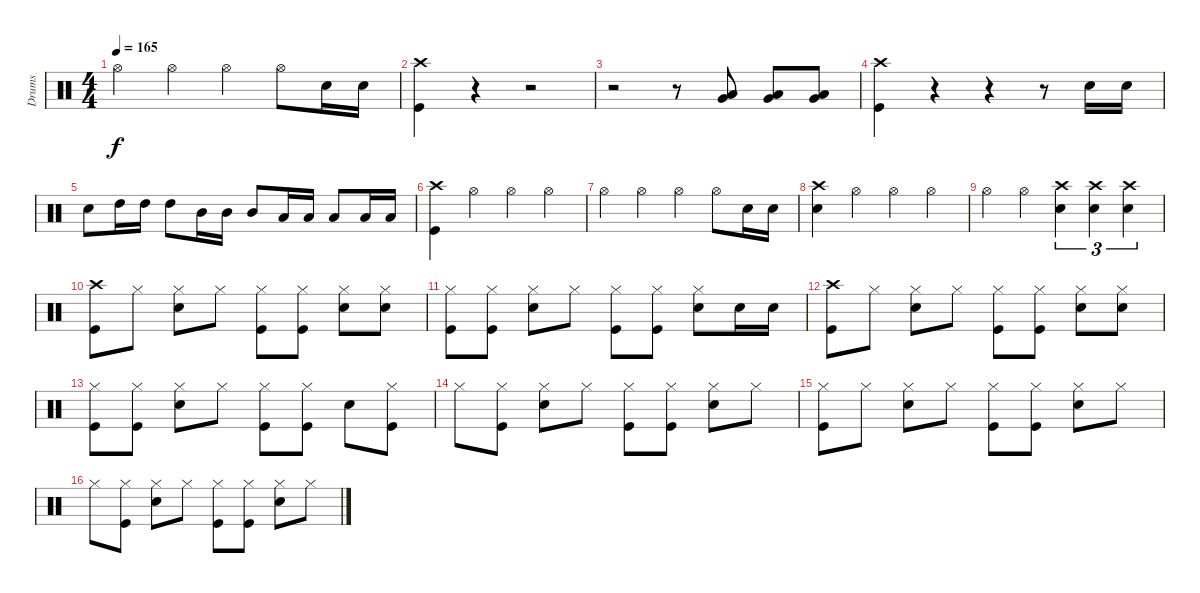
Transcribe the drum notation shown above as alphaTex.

\track ("Drums" "Drums") {instrument percussion}
\staff {score}
\articulation defaults
\ts (4 4)
\tempo 165
\clef neutral
\ks c "Hi-Hat (open)".4{dy f} "Hi-Hat (open)".4 "Hi-Hat (open)".4 "Hi-Hat (open)".8 "Snare (hit) 2".16 "Snare (hit) 2".16
|
("Crash high (hit)" "Kick (hit)").4 r.4 r.2 |
r.2 r.8 ("Low Tom (hit)" "Very Low Tom (hit)").8 ("Low Tom (hit)" "Very Low Tom (hit)").8 ("Low Tom (hit)" "Very Low Tom (hit)").8 |
("Crash high (hit)" "Kick (hit)").4 r.4 r.4 r.8 "Snare (hit) 2".16 "Snare (hit) 2".16 |
"Snare (hit) 2".8 "High Tom (hit)".16 "High Tom (hit)".16 "High Tom (hit)".8 "Mid Tom (hit)".16 "Mid Tom (hit)".16 "Mid Tom (hit)".8 "Low Tom (hit)".16 "Low Tom (hit)".16 "Low Tom (hit)".8 "Low Tom (hit)".16 "Low Tom (hit)".16 |
("Crash high (hit)" "Kick (hit)").4 "Hi-Hat (open)".4 "Hi-Hat (open)".4 "Hi-Hat (open)".4 |
"Hi-Hat (open)".4 "Hi-Hat (open)".4 "Hi-Hat (open)".4 "Hi-Hat (open)".8 "Snare (hit) 2".16 "Snare (hit) 2".16 |
("Crash high (hit)" "Snare (hit) 2").4 "Hi-Hat (open)".4 "Hi-Hat (open)".4 "Hi-Hat (open)".4 |
"Hi-Hat (open)".4 "Hi-Hat (open)".4 ("Crash high (hit)" "Snare (hit) 2").4{tu (3 2)} ("Crash high (hit)" "Snare (hit) 2").4{tu (3 2)} ("Crash high (hit)" "Snare (hit) 2").4{tu (3 2)} |
("Crash high (hit)" "Kick (hit)").8 "Hi-Hat (closed)".8 ("Hi-Hat (closed)" "Snare (hit) 2").8 "Hi-Hat (closed)".8 ("Hi-Hat (closed)" "Kick (hit)").8 ("Hi-Hat (closed)" "Kick (hit)").8 ("Hi-Hat (closed)" "Snare (hit) 2").8 ("Hi-Hat (closed)" "Snare (hit) 2").8 |
("Hi-Hat (closed)" "Kick (hit)").8 ("Hi-Hat (closed)" "Kick (hit)").8 ("Hi-Hat (closed)" "Snare (hit) 2").8 "Hi-Hat (closed)".8 ("Hi-Hat (closed)" "Kick (hit)").8 ("Hi-Hat (closed)" "Kick (hit)").8 ("Hi-Hat (closed)" "Snare (hit) 2").8 "Snare (hit) 2".16 "Snare (hit) 2".16 |
("Crash high (hit)" "Kick (hit)").8 "Hi-Hat (closed)".8 ("Hi-Hat (closed)" "Snare (hit) 2").8 "Hi-Hat (closed)".8 ("Hi-Hat (closed)" "Kick (hit)").8 ("Hi-Hat (closed)" "Kick (hit)").8 ("Hi-Hat (closed)" "Snare (hit) 2").8 ("Hi-Hat (closed)" "Snare (hit) 2").8 |
("Hi-Hat (closed)" "Kick (hit)").8 ("Hi-Hat (closed)" "Kick (hit)").8 ("Hi-Hat (closed)" "Snare (hit) 2").8 "Hi-Hat (closed)".8 ("Hi-Hat (closed)" "Kick (hit)").8 ("Hi-Hat (closed)" "Kick (hit)").8 "Snare (hit) 2".8 ("Hi-Hat (closed)" "Kick (hit)").8 |
"Hi-Hat (closed)".8 ("Hi-Hat (closed)" "Kick (hit)").8 ("Hi-Hat (closed)" "Snare (hit) 2").8 "Hi-Hat (closed)".8 ("Hi-Hat (closed)" "Kick (hit)").8 ("Hi-Hat (closed)" "Kick (hit)").8 ("Hi-Hat (closed)" "Snare (hit) 2").8 "Hi-Hat (closed)".8 |
("Hi-Hat (closed)" "Kick (hit)").8 "Hi-Hat (closed)".8 ("Hi-Hat (closed)" "Snare (hit) 2").8 "Hi-Hat (closed)".8 ("Hi-Hat (closed)" "Kick (hit)").8 ("Hi-Hat (closed)" "Kick (hit)").8 ("Hi-Hat (closed)" "Snare (hit) 2").8 "Hi-Hat (closed)".8 |
"Hi-Hat (closed)".8 ("Hi-Hat (closed)" "Kick (hit)").8 ("Hi-Hat (closed)" "Snare (hit) 2").8 "Hi-Hat (closed)".8 ("Hi-Hat (closed)" "Kick (hit)").8 ("Hi-Hat (closed)" "Kick (hit)").8 ("Hi-Hat (closed)" "Snare (hit) 2").8 "Hi-Hat (closed)".8
